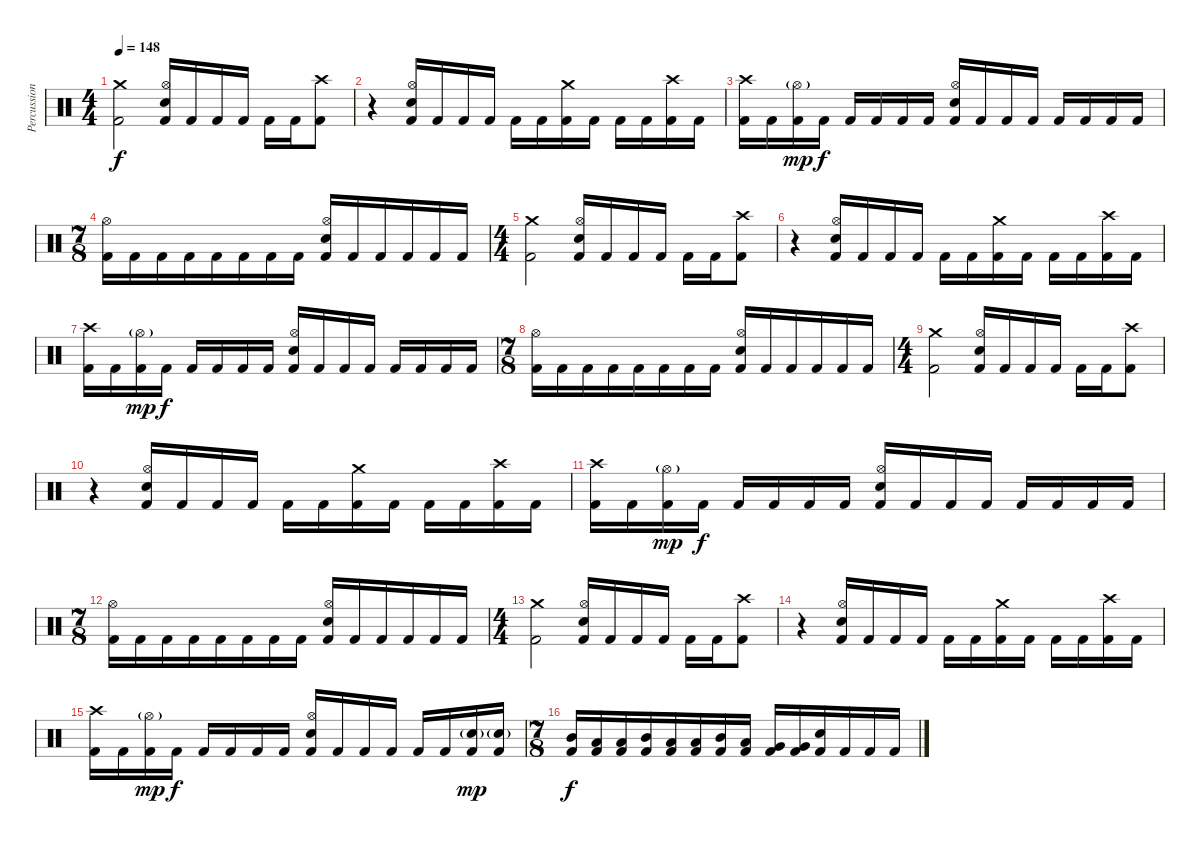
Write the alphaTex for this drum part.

\track ("Percussion" "Percussion") {instrument percussion}
\staff {score}
\articulation defaults
\ts (4 4)
\tempo 148
\clef neutral
\ks c
("Crash medium (hit)" "Kick (hit) 2").2{dy f} ("Hi-Hat (open)" "Electric Snare (hit)" "Kick (hit) 2").16 "Kick (hit) 2".16 "Kick (hit) 2".16 "Kick (hit) 2".16 "Kick (hit) 2".16 "Kick (hit) 2".16 ("Crash high (hit)" "Kick (hit) 2").8 |
r.4 ("Hi-Hat (open)" "Electric Snare (hit)" "Kick (hit) 2").16 "Kick (hit) 2".16 "Kick (hit) 2".16 "Kick (hit) 2".16 "Kick (hit) 2".16 "Kick (hit) 2".16 ("Crash medium (hit)" "Kick (hit) 2").16 "Kick (hit) 2".16 "Kick (hit) 2".16 "Kick (hit) 2".16 ("Crash high (hit)" "Kick (hit) 2").16 "Kick (hit) 2".16 |
("Crash high (hit)" "Kick (hit) 2").16 "Kick (hit) 2".16 ("Hi-Hat (open)"{g} "Kick (hit) 2").16{dy mp} "Kick (hit) 2".16{dy f} "Kick (hit) 2".16 "Kick (hit) 2".16 "Kick (hit) 2".16 "Kick (hit) 2".16 ("Hi-Hat (open)" "Electric Snare (hit)" "Kick (hit) 2").16 "Kick (hit) 2".16 "Kick (hit) 2".16 "Kick (hit) 2".16 "Kick (hit) 2".16 "Kick (hit) 2".16 "Kick (hit) 2".16 "Kick (hit) 2".16 |
\ts (7 8)
("Hi-Hat (open)" "Kick (hit) 2").16 "Kick (hit) 2".16 "Kick (hit) 2".16 "Kick (hit) 2".16 "Kick (hit) 2".16 "Kick (hit) 2".16 "Kick (hit) 2".16 "Kick (hit) 2".16 ("Hi-Hat (open)" "Electric Snare (hit)" "Kick (hit) 2").16 "Kick (hit) 2".16 "Kick (hit) 2".16 "Kick (hit) 2".16 "Kick (hit) 2".16 "Kick (hit) 2".16 |
\ts (4 4)
("Crash medium (hit)" "Kick (hit) 2").2 ("Hi-Hat (open)" "Electric Snare (hit)" "Kick (hit) 2").16 "Kick (hit) 2".16 "Kick (hit) 2".16 "Kick (hit) 2".16 "Kick (hit) 2".16 "Kick (hit) 2".16 ("Crash high (hit)" "Kick (hit) 2").8 |
r.4 ("Hi-Hat (open)" "Electric Snare (hit)" "Kick (hit) 2").16 "Kick (hit) 2".16 "Kick (hit) 2".16 "Kick (hit) 2".16 "Kick (hit) 2".16 "Kick (hit) 2".16 ("Crash medium (hit)" "Kick (hit) 2").16 "Kick (hit) 2".16 "Kick (hit) 2".16 "Kick (hit) 2".16 ("Crash high (hit)" "Kick (hit) 2").16 "Kick (hit) 2".16 |
("Crash high (hit)" "Kick (hit) 2").16 "Kick (hit) 2".16 ("Hi-Hat (open)"{g} "Kick (hit) 2").16{dy mp} "Kick (hit) 2".16{dy f} "Kick (hit) 2".16 "Kick (hit) 2".16 "Kick (hit) 2".16 "Kick (hit) 2".16 ("Hi-Hat (open)" "Electric Snare (hit)" "Kick (hit) 2").16 "Kick (hit) 2".16 "Kick (hit) 2".16 "Kick (hit) 2".16 "Kick (hit) 2".16 "Kick (hit) 2".16 "Kick (hit) 2".16 "Kick (hit) 2".16 |
\ts (7 8)
("Hi-Hat (open)" "Kick (hit) 2").16 "Kick (hit) 2".16 "Kick (hit) 2".16 "Kick (hit) 2".16 "Kick (hit) 2".16 "Kick (hit) 2".16 "Kick (hit) 2".16 "Kick (hit) 2".16 ("Hi-Hat (open)" "Electric Snare (hit)" "Kick (hit) 2").16 "Kick (hit) 2".16 "Kick (hit) 2".16 "Kick (hit) 2".16 "Kick (hit) 2".16 "Kick (hit) 2".16 |
\ts (4 4)
("Crash medium (hit)" "Kick (hit) 2").2 ("Hi-Hat (open)" "Electric Snare (hit)" "Kick (hit) 2").16 "Kick (hit) 2".16 "Kick (hit) 2".16 "Kick (hit) 2".16 "Kick (hit) 2".16 "Kick (hit) 2".16 ("Crash high (hit)" "Kick (hit) 2").8 |
r.4 ("Hi-Hat (open)" "Electric Snare (hit)" "Kick (hit) 2").16 "Kick (hit) 2".16 "Kick (hit) 2".16 "Kick (hit) 2".16 "Kick (hit) 2".16 "Kick (hit) 2".16 ("Crash medium (hit)" "Kick (hit) 2").16 "Kick (hit) 2".16 "Kick (hit) 2".16 "Kick (hit) 2".16 ("Crash high (hit)" "Kick (hit) 2").16 "Kick (hit) 2".16 |
("Crash high (hit)" "Kick (hit) 2").16 "Kick (hit) 2".16 ("Hi-Hat (open)"{g} "Kick (hit) 2").16{dy mp} "Kick (hit) 2".16{dy f} "Kick (hit) 2".16 "Kick (hit) 2".16 "Kick (hit) 2".16 "Kick (hit) 2".16 ("Hi-Hat (open)" "Electric Snare (hit)" "Kick (hit) 2").16 "Kick (hit) 2".16 "Kick (hit) 2".16 "Kick (hit) 2".16 "Kick (hit) 2".16 "Kick (hit) 2".16 "Kick (hit) 2".16 "Kick (hit) 2".16 |
\ts (7 8)
("Hi-Hat (open)" "Kick (hit) 2").16 "Kick (hit) 2".16 "Kick (hit) 2".16 "Kick (hit) 2".16 "Kick (hit) 2".16 "Kick (hit) 2".16 "Kick (hit) 2".16 "Kick (hit) 2".16 ("Hi-Hat (open)" "Electric Snare (hit)" "Kick (hit) 2").16 "Kick (hit) 2".16 "Kick (hit) 2".16 "Kick (hit) 2".16 "Kick (hit) 2".16 "Kick (hit) 2".16 |
\ts (4 4)
("Crash medium (hit)" "Kick (hit) 2").2 ("Hi-Hat (open)" "Electric Snare (hit)" "Kick (hit) 2").16 "Kick (hit) 2".16 "Kick (hit) 2".16 "Kick (hit) 2".16 "Kick (hit) 2".16 "Kick (hit) 2".16 ("Crash high (hit)" "Kick (hit) 2").8 |
r.4 ("Hi-Hat (open)" "Electric Snare (hit)" "Kick (hit) 2").16 "Kick (hit) 2".16 "Kick (hit) 2".16 "Kick (hit) 2".16 "Kick (hit) 2".16 "Kick (hit) 2".16 ("Crash medium (hit)" "Kick (hit) 2").16 "Kick (hit) 2".16 "Kick (hit) 2".16 "Kick (hit) 2".16 ("Crash high (hit)" "Kick (hit) 2").16 "Kick (hit) 2".16 |
("Crash high (hit)" "Kick (hit) 2").16 "Kick (hit) 2".16 ("Hi-Hat (open)"{g} "Kick (hit) 2").16{dy mp} "Kick (hit) 2".16{dy f} "Kick (hit) 2".16 "Kick (hit) 2".16 "Kick (hit) 2".16 "Kick (hit) 2".16 ("Hi-Hat (open)" "Electric Snare (hit)" "Kick (hit) 2").16 "Kick (hit) 2".16 "Kick (hit) 2".16 "Kick (hit) 2".16 "Kick (hit) 2".16 "Kick (hit) 2".16 ("Electric Snare (hit)"{g} "Kick (hit) 2").16{dy mp} ("Electric Snare (hit)"{g} "Kick (hit) 2").16 |
\ts (7 8)
("Mid Tom (hit)" "Kick (hit) 2").16{dy f} ("Low Tom (hit)" "Kick (hit) 2").16 ("Low Tom (hit)" "Kick (hit) 2").16 ("Mid Tom (hit)" "Kick (hit) 2").16 ("Low Tom (hit)" "Kick (hit) 2").16 ("Low Tom (hit)" "Kick (hit) 2").16 ("Mid Tom (hit)" "Kick (hit) 2").16 ("Low Tom (hit)" "Kick (hit) 2").16 ("Very Low Tom (hit)" "Kick (hit) 2").16 ("Very Low Tom (hit)" "Kick (hit) 2").16 ("Electric Snare (hit)" "Kick (hit) 2").16 "Kick (hit) 2".16 "Kick (hit) 2".16 "Kick (hit) 2".16
